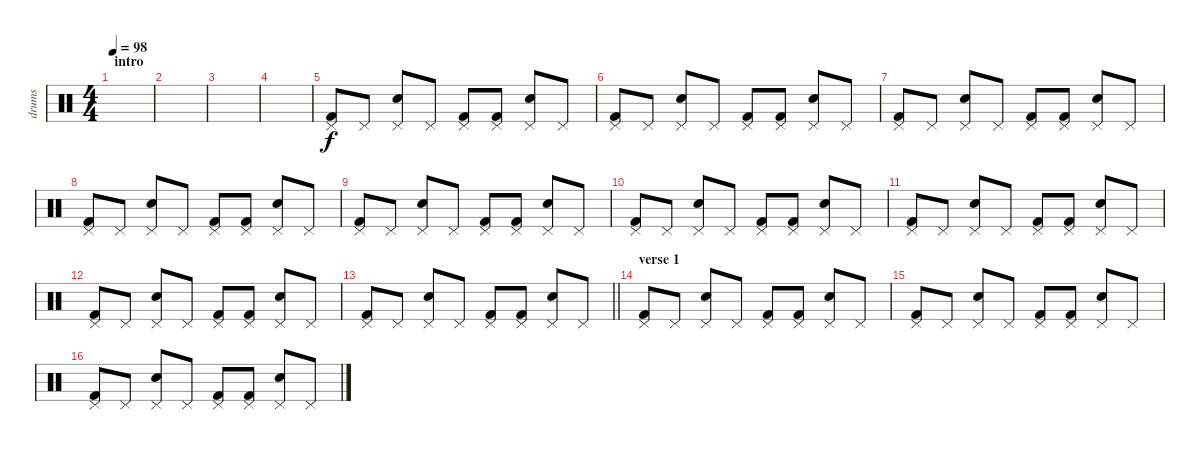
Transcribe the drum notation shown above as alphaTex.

\track ("drums" "drums") {instrument percussion}
\staff {score}
\articulation defaults
\ts (4 4)
\section ("" "intro")
\tempo 98
\clef neutral
\ks c
|
|
|
|
("Kick (hit) 2" "Pedal Hi-Hat (hit)").8 "Pedal Hi-Hat (hit)".8 ("Electric Snare (hit)" "Pedal Hi-Hat (hit)").8 "Pedal Hi-Hat (hit)".8 ("Kick (hit) 2" "Pedal Hi-Hat (hit)").8 ("Kick (hit) 2" "Pedal Hi-Hat (hit)").8 ("Electric Snare (hit)" "Pedal Hi-Hat (hit)").8 "Pedal Hi-Hat (hit)".8 |
("Kick (hit) 2" "Pedal Hi-Hat (hit)").8 "Pedal Hi-Hat (hit)".8 ("Electric Snare (hit)" "Pedal Hi-Hat (hit)").8 "Pedal Hi-Hat (hit)".8 ("Kick (hit) 2" "Pedal Hi-Hat (hit)").8 ("Kick (hit) 2" "Pedal Hi-Hat (hit)").8 ("Electric Snare (hit)" "Pedal Hi-Hat (hit)").8 "Pedal Hi-Hat (hit)".8 |
("Kick (hit) 2" "Pedal Hi-Hat (hit)").8 "Pedal Hi-Hat (hit)".8 ("Electric Snare (hit)" "Pedal Hi-Hat (hit)").8 "Pedal Hi-Hat (hit)".8 ("Kick (hit) 2" "Pedal Hi-Hat (hit)").8 ("Kick (hit) 2" "Pedal Hi-Hat (hit)").8 ("Electric Snare (hit)" "Pedal Hi-Hat (hit)").8 "Pedal Hi-Hat (hit)".8 |
("Kick (hit) 2" "Pedal Hi-Hat (hit)").8 "Pedal Hi-Hat (hit)".8 ("Electric Snare (hit)" "Pedal Hi-Hat (hit)").8 "Pedal Hi-Hat (hit)".8 ("Kick (hit) 2" "Pedal Hi-Hat (hit)").8 ("Kick (hit) 2" "Pedal Hi-Hat (hit)").8 ("Electric Snare (hit)" "Pedal Hi-Hat (hit)").8 "Pedal Hi-Hat (hit)".8 |
("Kick (hit) 2" "Pedal Hi-Hat (hit)").8 "Pedal Hi-Hat (hit)".8 ("Electric Snare (hit)" "Pedal Hi-Hat (hit)").8 "Pedal Hi-Hat (hit)".8 ("Kick (hit) 2" "Pedal Hi-Hat (hit)").8 ("Kick (hit) 2" "Pedal Hi-Hat (hit)").8 ("Electric Snare (hit)" "Pedal Hi-Hat (hit)").8 "Pedal Hi-Hat (hit)".8 |
("Kick (hit) 2" "Pedal Hi-Hat (hit)").8 "Pedal Hi-Hat (hit)".8 ("Electric Snare (hit)" "Pedal Hi-Hat (hit)").8 "Pedal Hi-Hat (hit)".8 ("Kick (hit) 2" "Pedal Hi-Hat (hit)").8 ("Kick (hit) 2" "Pedal Hi-Hat (hit)").8 ("Electric Snare (hit)" "Pedal Hi-Hat (hit)").8 "Pedal Hi-Hat (hit)".8 |
("Kick (hit) 2" "Pedal Hi-Hat (hit)").8 "Pedal Hi-Hat (hit)".8 ("Electric Snare (hit)" "Pedal Hi-Hat (hit)").8 "Pedal Hi-Hat (hit)".8 ("Kick (hit) 2" "Pedal Hi-Hat (hit)").8 ("Kick (hit) 2" "Pedal Hi-Hat (hit)").8 ("Electric Snare (hit)" "Pedal Hi-Hat (hit)").8 "Pedal Hi-Hat (hit)".8 |
("Kick (hit) 2" "Pedal Hi-Hat (hit)").8 "Pedal Hi-Hat (hit)".8 ("Electric Snare (hit)" "Pedal Hi-Hat (hit)").8 "Pedal Hi-Hat (hit)".8 ("Kick (hit) 2" "Pedal Hi-Hat (hit)").8 ("Kick (hit) 2" "Pedal Hi-Hat (hit)").8 ("Electric Snare (hit)" "Pedal Hi-Hat (hit)").8 "Pedal Hi-Hat (hit)".8 |
\barLineRight lightlight
("Kick (hit) 2" "Pedal Hi-Hat (hit)").8 "Pedal Hi-Hat (hit)".8 ("Electric Snare (hit)" "Pedal Hi-Hat (hit)").8 "Pedal Hi-Hat (hit)".8 ("Kick (hit) 2" "Pedal Hi-Hat (hit)").8 ("Kick (hit) 2" "Pedal Hi-Hat (hit)").8 ("Electric Snare (hit)" "Pedal Hi-Hat (hit)").8 "Pedal Hi-Hat (hit)".8 |
\section ("" "verse 1")
("Kick (hit) 2" "Pedal Hi-Hat (hit)").8 "Pedal Hi-Hat (hit)".8 ("Electric Snare (hit)" "Pedal Hi-Hat (hit)").8 "Pedal Hi-Hat (hit)".8 ("Kick (hit) 2" "Pedal Hi-Hat (hit)").8 ("Kick (hit) 2" "Pedal Hi-Hat (hit)").8 ("Electric Snare (hit)" "Pedal Hi-Hat (hit)").8 "Pedal Hi-Hat (hit)".8 |
("Kick (hit) 2" "Pedal Hi-Hat (hit)").8 "Pedal Hi-Hat (hit)".8 ("Electric Snare (hit)" "Pedal Hi-Hat (hit)").8 "Pedal Hi-Hat (hit)".8 ("Kick (hit) 2" "Pedal Hi-Hat (hit)").8 ("Kick (hit) 2" "Pedal Hi-Hat (hit)").8 ("Electric Snare (hit)" "Pedal Hi-Hat (hit)").8 "Pedal Hi-Hat (hit)".8 |
("Kick (hit) 2" "Pedal Hi-Hat (hit)").8 "Pedal Hi-Hat (hit)".8 ("Electric Snare (hit)" "Pedal Hi-Hat (hit)").8 "Pedal Hi-Hat (hit)".8 ("Kick (hit) 2" "Pedal Hi-Hat (hit)").8 ("Kick (hit) 2" "Pedal Hi-Hat (hit)").8 ("Electric Snare (hit)" "Pedal Hi-Hat (hit)").8 "Pedal Hi-Hat (hit)".8
